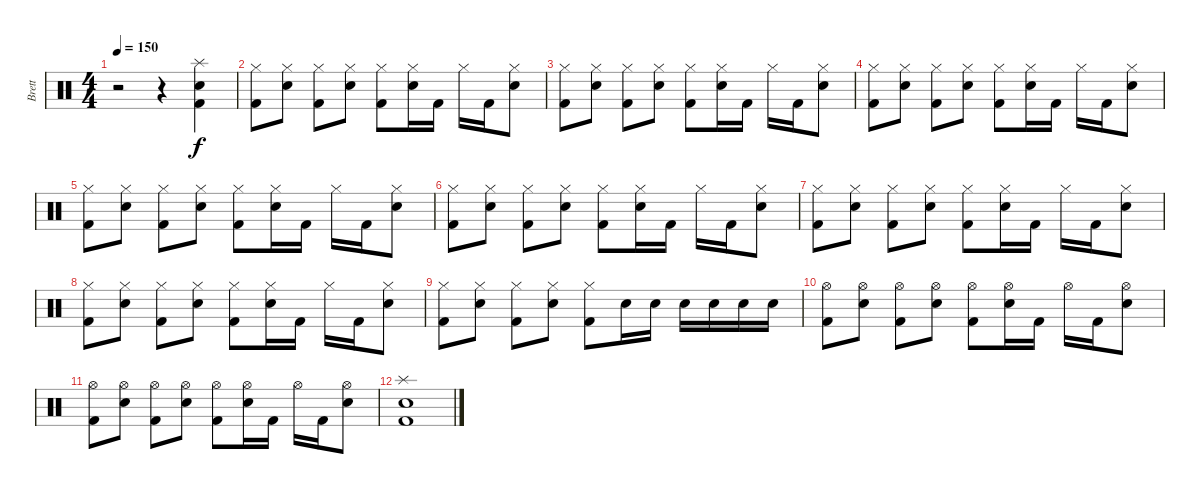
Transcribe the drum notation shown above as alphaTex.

\track ("Brett" "Brett") {instrument percussion}
\staff {score}
\articulation defaults
\ts (4 4)
\tempo 150
\clef neutral
\ks c
r.2{dy f} r.4 ("Splash (hit)" "Snare (hit) 2" "Kick (hit) 2").4 |
("Hi-Hat (closed)" "Kick (hit) 2").8 ("Hi-Hat (closed)" "Snare (hit) 2").8 ("Hi-Hat (closed)" "Kick (hit) 2").8 ("Hi-Hat (closed)" "Snare (hit) 2").8 ("Hi-Hat (closed)" "Kick (hit) 2").8 ("Hi-Hat (closed)" "Snare (hit) 2").16 "Kick (hit) 2".16 "Hi-Hat (closed)".16 "Kick (hit) 2".16 ("Hi-Hat (closed)" "Snare (hit) 2").8 |
("Hi-Hat (closed)" "Kick (hit) 2").8 ("Hi-Hat (closed)" "Snare (hit) 2").8 ("Hi-Hat (closed)" "Kick (hit) 2").8 ("Hi-Hat (closed)" "Snare (hit) 2").8 ("Hi-Hat (closed)" "Kick (hit) 2").8 ("Hi-Hat (closed)" "Snare (hit) 2").16 "Kick (hit) 2".16 "Hi-Hat (closed)".16 "Kick (hit) 2".16 ("Hi-Hat (closed)" "Snare (hit) 2").8 |
("Hi-Hat (closed)" "Kick (hit) 2").8 ("Hi-Hat (closed)" "Snare (hit) 2").8 ("Hi-Hat (closed)" "Kick (hit) 2").8 ("Hi-Hat (closed)" "Snare (hit) 2").8 ("Hi-Hat (closed)" "Kick (hit) 2").8 ("Hi-Hat (closed)" "Snare (hit) 2").16 "Kick (hit) 2".16 "Hi-Hat (closed)".16 "Kick (hit) 2".16 ("Hi-Hat (closed)" "Snare (hit) 2").8 |
("Hi-Hat (closed)" "Kick (hit) 2").8 ("Hi-Hat (closed)" "Snare (hit) 2").8 ("Hi-Hat (closed)" "Kick (hit) 2").8 ("Hi-Hat (closed)" "Snare (hit) 2").8 ("Hi-Hat (closed)" "Kick (hit) 2").8 ("Hi-Hat (closed)" "Snare (hit) 2").16 "Kick (hit) 2".16 "Hi-Hat (closed)".16 "Kick (hit) 2".16 ("Hi-Hat (closed)" "Snare (hit) 2").8 |
("Hi-Hat (closed)" "Kick (hit) 2").8 ("Hi-Hat (closed)" "Snare (hit) 2").8 ("Hi-Hat (closed)" "Kick (hit) 2").8 ("Hi-Hat (closed)" "Snare (hit) 2").8 ("Hi-Hat (closed)" "Kick (hit) 2").8 ("Hi-Hat (closed)" "Snare (hit) 2").16 "Kick (hit) 2".16 "Hi-Hat (closed)".16 "Kick (hit) 2".16 ("Hi-Hat (closed)" "Snare (hit) 2").8 |
("Hi-Hat (closed)" "Kick (hit) 2").8 ("Hi-Hat (closed)" "Snare (hit) 2").8 ("Hi-Hat (closed)" "Kick (hit) 2").8 ("Hi-Hat (closed)" "Snare (hit) 2").8 ("Hi-Hat (closed)" "Kick (hit) 2").8 ("Hi-Hat (closed)" "Snare (hit) 2").16 "Kick (hit) 2".16 "Hi-Hat (closed)".16 "Kick (hit) 2".16 ("Hi-Hat (closed)" "Snare (hit) 2").8 |
("Hi-Hat (closed)" "Kick (hit) 2").8 ("Hi-Hat (closed)" "Snare (hit) 2").8 ("Hi-Hat (closed)" "Kick (hit) 2").8 ("Hi-Hat (closed)" "Snare (hit) 2").8 ("Hi-Hat (closed)" "Kick (hit) 2").8 ("Hi-Hat (closed)" "Snare (hit) 2").16 "Kick (hit) 2".16 "Hi-Hat (closed)".16 "Kick (hit) 2".16 ("Hi-Hat (closed)" "Snare (hit) 2").8 |
("Hi-Hat (closed)" "Kick (hit) 2").8 ("Hi-Hat (closed)" "Snare (hit) 2").8 ("Hi-Hat (closed)" "Kick (hit) 2").8 ("Hi-Hat (closed)" "Snare (hit) 2").8 ("Hi-Hat (closed)" "Kick (hit) 2").8 "Snare (hit) 2".16 "Snare (hit) 2".16 "Snare (hit) 2".16 "Snare (hit) 2".16 "Snare (hit) 2".16 "Snare (hit) 2".16 |
("Hi-Hat (open)" "Kick (hit) 2").8 ("Hi-Hat (open)" "Snare (hit) 2").8 ("Hi-Hat (open)" "Kick (hit) 2").8 ("Hi-Hat (open)" "Snare (hit) 2").8 ("Hi-Hat (open)" "Kick (hit) 2").8 ("Hi-Hat (open)" "Snare (hit) 2").16 "Kick (hit) 2".16 "Hi-Hat (open)".16 "Kick (hit) 2".16 ("Hi-Hat (open)" "Snare (hit) 2").8 |
("Hi-Hat (open)" "Kick (hit) 2").8 ("Hi-Hat (open)" "Snare (hit) 2").8 ("Hi-Hat (open)" "Kick (hit) 2").8 ("Hi-Hat (open)" "Snare (hit) 2").8 ("Hi-Hat (open)" "Kick (hit) 2").8 ("Hi-Hat (open)" "Snare (hit) 2").16 "Kick (hit) 2".16 "Hi-Hat (open)".16 "Kick (hit) 2".16 ("Hi-Hat (open)" "Snare (hit) 2").8 |
("Splash (hit)" "Snare (hit) 2" "Kick (hit) 2").1
